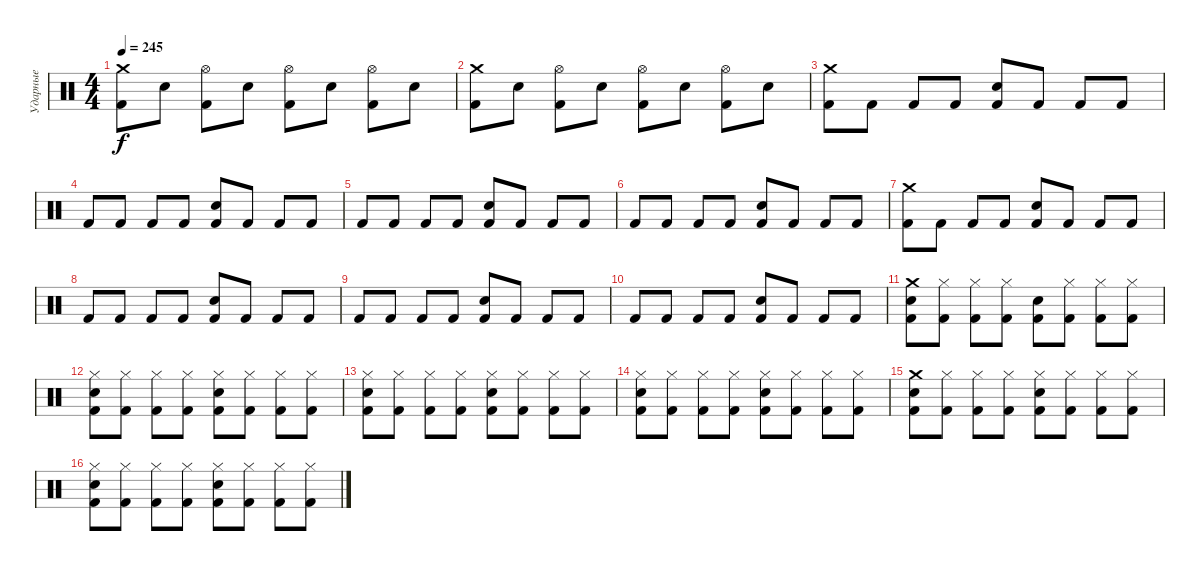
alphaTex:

\track ("Ударные" "Ударные") {instrument percussion}
\staff {score}
\articulation defaults
\ts (4 4)
\tempo 245
\clef neutral
\ks c
("Crash medium (hit)" "Kick (hit) 2").8{dy f} "Snare (hit) 2".8 ("Hi-Hat (open)" "Kick (hit) 2").8 "Snare (hit) 2".8 ("Hi-Hat (open)" "Kick (hit) 2").8 "Snare (hit) 2".8 ("Hi-Hat (open)" "Kick (hit) 2").8 "Snare (hit) 2".8 |
("Crash medium (hit)" "Kick (hit) 2").8 "Snare (hit) 2".8 ("Hi-Hat (open)" "Kick (hit) 2").8 "Snare (hit) 2".8 ("Hi-Hat (open)" "Kick (hit) 2").8 "Snare (hit) 2".8 ("Hi-Hat (open)" "Kick (hit) 2").8 "Snare (hit) 2".8 |
("Crash medium (hit)" "Kick (hit) 2").8 "Kick (hit) 2".8 "Kick (hit) 2".8 "Kick (hit) 2".8 ("Snare (hit) 2" "Kick (hit) 2").8 "Kick (hit) 2".8 "Kick (hit) 2".8 "Kick (hit) 2".8 |
"Kick (hit) 2".8 "Kick (hit) 2".8 "Kick (hit) 2".8 "Kick (hit) 2".8 ("Snare (hit) 2" "Kick (hit) 2").8 "Kick (hit) 2".8 "Kick (hit) 2".8 "Kick (hit) 2".8 |
"Kick (hit) 2".8 "Kick (hit) 2".8 "Kick (hit) 2".8 "Kick (hit) 2".8 ("Snare (hit) 2" "Kick (hit) 2").8 "Kick (hit) 2".8 "Kick (hit) 2".8 "Kick (hit) 2".8 |
"Kick (hit) 2".8 "Kick (hit) 2".8 "Kick (hit) 2".8 "Kick (hit) 2".8 ("Snare (hit) 2" "Kick (hit) 2").8 "Kick (hit) 2".8 "Kick (hit) 2".8 "Kick (hit) 2".8 |
("Crash medium (hit)" "Kick (hit) 2").8 "Kick (hit) 2".8 "Kick (hit) 2".8 "Kick (hit) 2".8 ("Snare (hit) 2" "Kick (hit) 2").8 "Kick (hit) 2".8 "Kick (hit) 2".8 "Kick (hit) 2".8 |
"Kick (hit) 2".8 "Kick (hit) 2".8 "Kick (hit) 2".8 "Kick (hit) 2".8 ("Snare (hit) 2" "Kick (hit) 2").8 "Kick (hit) 2".8 "Kick (hit) 2".8 "Kick (hit) 2".8 |
"Kick (hit) 2".8 "Kick (hit) 2".8 "Kick (hit) 2".8 "Kick (hit) 2".8 ("Snare (hit) 2" "Kick (hit) 2").8 "Kick (hit) 2".8 "Kick (hit) 2".8 "Kick (hit) 2".8 |
"Kick (hit) 2".8 "Kick (hit) 2".8 "Kick (hit) 2".8 "Kick (hit) 2".8 ("Snare (hit) 2" "Kick (hit) 2").8 "Kick (hit) 2".8 "Kick (hit) 2".8 "Kick (hit) 2".8 |
("Crash medium (hit)" "Kick (hit) 2" "Snare (hit) 2").8 ("Hi-Hat (closed)" "Kick (hit) 2").8 ("Hi-Hat (closed)" "Kick (hit) 2").8 ("Hi-Hat (closed)" "Kick (hit) 2").8 ("Snare (hit) 2" "Kick (hit) 2").8 ("Hi-Hat (closed)" "Kick (hit) 2").8 ("Hi-Hat (closed)" "Kick (hit) 2").8 ("Hi-Hat (closed)" "Kick (hit) 2").8 |
("Hi-Hat (closed)" "Kick (hit) 2" "Snare (hit) 2").8 ("Hi-Hat (closed)" "Kick (hit) 2").8 ("Hi-Hat (closed)" "Kick (hit) 2").8 ("Hi-Hat (closed)" "Kick (hit) 2").8 ("Hi-Hat (closed)" "Kick (hit) 2" "Snare (hit) 2").8 ("Hi-Hat (closed)" "Kick (hit) 2").8 ("Hi-Hat (closed)" "Kick (hit) 2").8 ("Hi-Hat (closed)" "Kick (hit) 2").8 |
("Hi-Hat (closed)" "Kick (hit) 2" "Snare (hit) 2").8 ("Hi-Hat (closed)" "Kick (hit) 2").8 ("Hi-Hat (closed)" "Kick (hit) 2").8 ("Hi-Hat (closed)" "Kick (hit) 2").8 ("Hi-Hat (closed)" "Kick (hit) 2" "Snare (hit) 2").8 ("Hi-Hat (closed)" "Kick (hit) 2").8 ("Hi-Hat (closed)" "Kick (hit) 2").8 ("Hi-Hat (closed)" "Kick (hit) 2").8 |
("Hi-Hat (closed)" "Kick (hit) 2" "Snare (hit) 2").8 ("Hi-Hat (closed)" "Kick (hit) 2").8 ("Hi-Hat (closed)" "Kick (hit) 2").8 ("Hi-Hat (closed)" "Kick (hit) 2").8 ("Hi-Hat (closed)" "Kick (hit) 2" "Snare (hit) 2").8 ("Hi-Hat (closed)" "Kick (hit) 2").8 ("Hi-Hat (closed)" "Kick (hit) 2").8 ("Hi-Hat (closed)" "Kick (hit) 2").8 |
("Crash medium (hit)" "Kick (hit) 2" "Snare (hit) 2").8 ("Hi-Hat (closed)" "Kick (hit) 2").8 ("Hi-Hat (closed)" "Kick (hit) 2").8 ("Hi-Hat (closed)" "Kick (hit) 2").8 ("Hi-Hat (closed)" "Kick (hit) 2" "Snare (hit) 2").8 ("Hi-Hat (closed)" "Kick (hit) 2").8 ("Hi-Hat (closed)" "Kick (hit) 2").8 ("Hi-Hat (closed)" "Kick (hit) 2").8 |
("Hi-Hat (closed)" "Kick (hit) 2" "Snare (hit) 2").8 ("Hi-Hat (closed)" "Kick (hit) 2").8 ("Hi-Hat (closed)" "Kick (hit) 2").8 ("Hi-Hat (closed)" "Kick (hit) 2").8 ("Hi-Hat (closed)" "Kick (hit) 2" "Snare (hit) 2").8 ("Hi-Hat (closed)" "Kick (hit) 2").8 ("Hi-Hat (closed)" "Kick (hit) 2").8 ("Hi-Hat (closed)" "Kick (hit) 2").8
